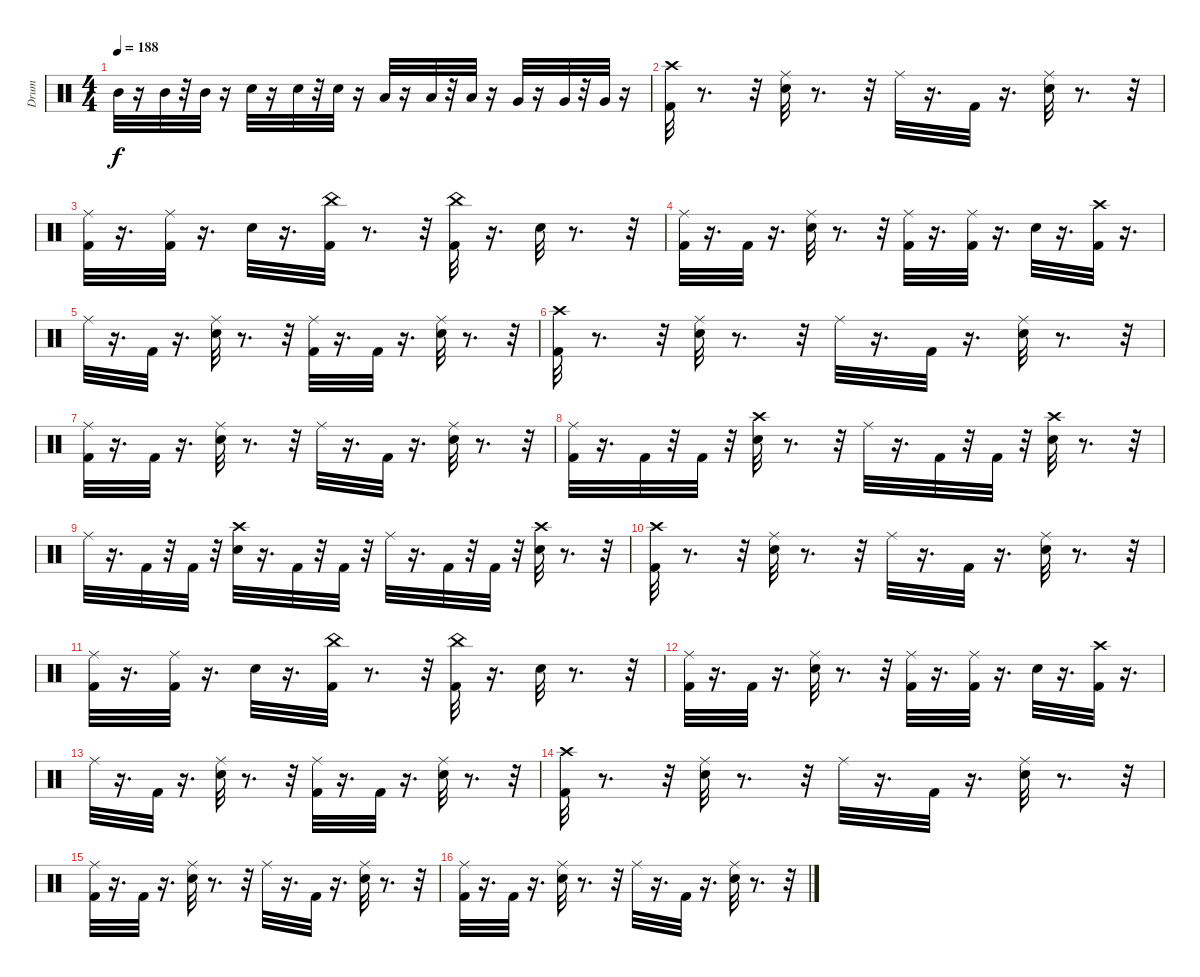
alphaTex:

\track ("Drum" "Drum") {instrument percussion}
\staff {score}
\articulation defaults
\ts (4 4)
\tempo 188
\clef neutral
\ks c "Mid Tom (hit)".32{dy f}
r.16 "Mid Tom (hit)".32 r.32 "Mid Tom (hit)".32 r.16 "Snare (hit) 2".32 r.16 "Snare (hit) 2".32 r.32 "Snare (hit) 2".32 r.16 "Low Tom (hit)".32 r.16 "Low Tom (hit)".32 r.32 "Low Tom (hit)".32 r.16 "Very Low Tom (hit)".32 r.16 "Very Low Tom (hit)".32 r.32 "Very Low Tom (hit)".32 r.16 |
("Crash high (hit)" "Kick (hit) 2").32 r.8{d} r.32 ("Ride (middle)" "Snare (hit) 2").32 r.8{d} r.32 "Ride (middle)".32 r.16{d} "Kick (hit) 2".32 r.16{d} ("Ride (middle)" "Snare (hit) 2").32 r.8{d} r.32 |
("Ride (middle)" "Kick (hit) 2").32 r.16{d} ("Ride (middle)" "Kick (hit) 2").32 r.16{d} "Snare (hit) 2".32 r.16{d} ("Kick (hit) 2" "China (hit)").32 r.8{d} r.32 ("Kick (hit) 2" "China (hit)").32 r.16{d} "Snare (hit) 2".32 r.8{d} r.32 |
("Ride (middle)" "Kick (hit) 2").32 r.16{d} "Kick (hit) 2".32 r.16{d} ("Ride (middle)" "Snare (hit) 2").32 r.8{d} r.32 ("Ride (middle)" "Kick (hit) 2").32 r.16{d} ("Ride (middle)" "Kick (hit) 2").32 r.16{d} "Snare (hit) 2".32 r.16{d} ("Crash high (hit)" "Kick (hit) 2").32 r.16{d} |
"Ride (middle)".32 r.16{d} "Kick (hit) 2".32 r.16{d} ("Ride (middle)" "Snare (hit) 2").32 r.8{d} r.32 ("Ride (middle)" "Kick (hit) 2").32 r.16{d} "Kick (hit) 2".32 r.16{d} ("Ride (middle)" "Snare (hit) 2").32 r.8{d} r.32 |
("Crash high (hit)" "Kick (hit) 2").32 r.8{d} r.32 ("Ride (middle)" "Snare (hit) 2").32 r.8{d} r.32 "Ride (middle)".32 r.16{d} "Kick (hit) 2".32 r.16{d} ("Ride (middle)" "Snare (hit) 2").32 r.8{d} r.32 |
("Ride (middle)" "Kick (hit) 2").32 r.16{d} "Kick (hit) 2".32 r.16{d} ("Ride (middle)" "Snare (hit) 2").32 r.8{d} r.32 "Ride (middle)".32 r.16{d} "Kick (hit) 2".32 r.16{d} ("Ride (middle)" "Snare (hit) 2").32 r.8{d} r.32 |
("Ride (middle)" "Kick (hit) 2").32 r.16{d} "Kick (hit) 2".32 r.32 "Kick (hit) 2".32 r.32 ("Crash high (hit)" "Snare (hit) 2").32 r.8{d} r.32 "Ride (middle)".32 r.16{d} "Kick (hit) 2".32 r.32 "Kick (hit) 2".32 r.32 ("Crash high (hit)" "Snare (hit) 2").32 r.8{d} r.32 |
"Ride (middle)".32 r.16{d} "Kick (hit) 2".32 r.32 "Kick (hit) 2".32 r.32 ("Crash high (hit)" "Snare (hit) 2").32 r.16{d} "Kick (hit) 2".32 r.32 "Kick (hit) 2".32 r.32 "Ride (middle)".32 r.16{d} "Kick (hit) 2".32 r.32 "Kick (hit) 2".32 r.32 ("Crash high (hit)" "Snare (hit) 2").32 r.8{d} r.32 |
("Crash high (hit)" "Kick (hit) 2").32 r.8{d} r.32 ("Ride (middle)" "Snare (hit) 2").32 r.8{d} r.32 "Ride (middle)".32 r.16{d} "Kick (hit) 2".32 r.16{d} ("Ride (middle)" "Snare (hit) 2").32 r.8{d} r.32 |
("Ride (middle)" "Kick (hit) 2").32 r.16{d} ("Ride (middle)" "Kick (hit) 2").32 r.16{d} "Snare (hit) 2".32 r.16{d} ("Kick (hit) 2" "China (hit)").32 r.8{d} r.32 ("Kick (hit) 2" "China (hit)").32 r.16{d} "Snare (hit) 2".32 r.8{d} r.32 |
("Ride (middle)" "Kick (hit) 2").32 r.16{d} "Kick (hit) 2".32 r.16{d} ("Ride (middle)" "Snare (hit) 2").32 r.8{d} r.32 ("Ride (middle)" "Kick (hit) 2").32 r.16{d} ("Ride (middle)" "Kick (hit) 2").32 r.16{d} "Snare (hit) 2".32 r.16{d} ("Crash high (hit)" "Kick (hit) 2").32 r.16{d} |
"Ride (middle)".32 r.16{d} "Kick (hit) 2".32 r.16{d} ("Ride (middle)" "Snare (hit) 2").32 r.8{d} r.32 ("Ride (middle)" "Kick (hit) 2").32 r.16{d} "Kick (hit) 2".32 r.16{d} ("Ride (middle)" "Snare (hit) 2").32 r.8{d} r.32 |
("Crash high (hit)" "Kick (hit) 2").32 r.8{d} r.32 ("Ride (middle)" "Snare (hit) 2").32 r.8{d} r.32 "Ride (middle)".32 r.16{d} "Kick (hit) 2".32 r.16{d} ("Ride (middle)" "Snare (hit) 2").32 r.8{d} r.32 |
("Ride (middle)" "Kick (hit) 2").32 r.16{d} "Kick (hit) 2".32 r.16{d} ("Ride (middle)" "Snare (hit) 2").32 r.8{d} r.32 "Ride (middle)".32 r.16{d} "Kick (hit) 2".32 r.16{d} ("Ride (middle)" "Snare (hit) 2").32 r.8{d} r.32 |
("Ride (middle)" "Kick (hit) 2").32 r.16{d} "Kick (hit) 2".32 r.16{d} ("Ride (middle)" "Snare (hit) 2").32 r.8{d} r.32 "Ride (middle)".32 r.16{d} "Kick (hit) 2".32 r.16{d} ("Ride (middle)" "Snare (hit) 2").32 r.8{d} r.32
